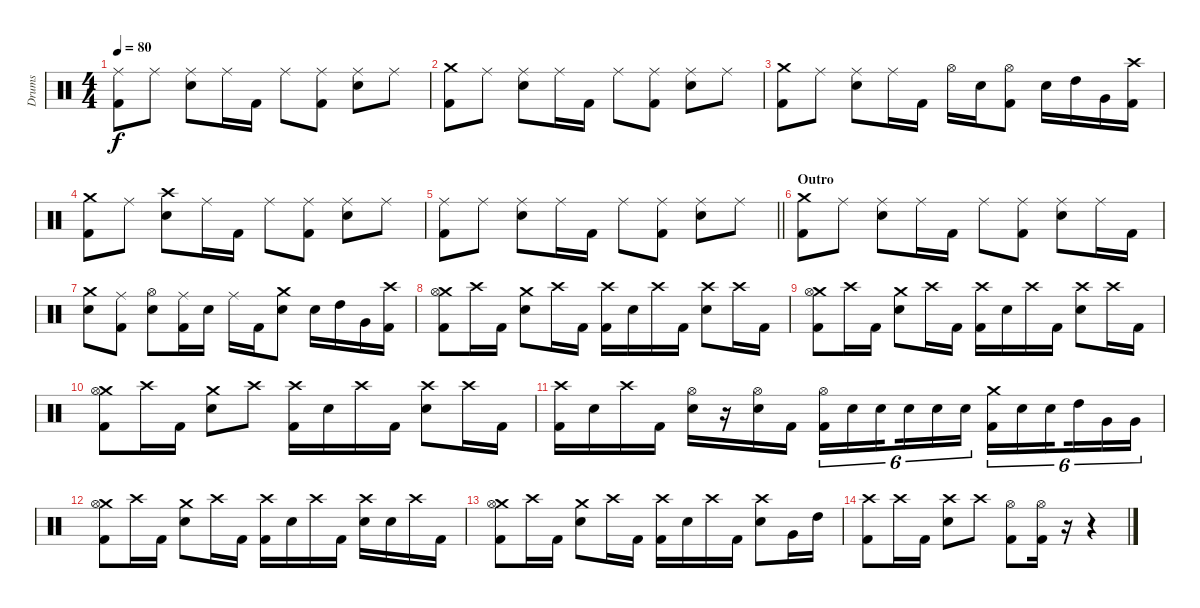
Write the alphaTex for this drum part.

\track ("Drums" "Drums") {instrument percussion}
\staff {score}
\articulation defaults
\ts (4 4)
\tempo 80
\clef neutral
\ks c
("Ride (middle)" "Kick (hit) 2").8{dy f} "Ride (middle)".8 ("Ride (middle)" "Snare (hit) 2").8 "Ride (middle)".16 "Kick (hit) 2".16 "Ride (middle)".8 ("Ride (middle)" "Kick (hit) 2").8 ("Ride (middle)" "Snare (hit) 2").8 "Ride (middle)".8 |
("Crash medium (hit)" "Kick (hit) 2").8 "Ride (middle)".8 ("Ride (middle)" "Snare (hit) 2").8 "Ride (middle)".16 "Kick (hit) 2".16 "Ride (middle)".8 ("Ride (middle)" "Kick (hit) 2").8 ("Ride (middle)" "Snare (hit) 2").8 "Ride (middle)".8 |
("Crash medium (hit)" "Kick (hit) 2").8 "Ride (middle)".8 ("Ride (middle)" "Snare (hit) 2").8 "Ride (middle)".16 "Kick (hit) 2".16 "Hi-Hat (open)".16 "Snare (hit) 2".16 ("Hi-Hat (open)" "Kick (hit) 2").8 "Snare (hit) 2".16 "High Tom (hit)".16 "Very Low Tom (hit)".16 ("Crash high (hit)" "Kick (hit) 2").16 |
("Crash medium (hit)" "Kick (hit) 2").8 "Ride (middle)".8 ("Crash high (hit)" "Snare (hit) 2").8 "Ride (middle)".16 "Kick (hit) 2".16 "Ride (middle)".8 ("Ride (middle)" "Kick (hit) 2").8 ("Ride (middle)" "Snare (hit) 2").8 "Ride (middle)".8 |
\barLineRight lightlight
("Ride (middle)" "Kick (hit) 2").8 "Ride (middle)".8 ("Ride (middle)" "Snare (hit) 2").8 "Ride (middle)".16 "Kick (hit) 2".16 "Ride (middle)".8 ("Ride (middle)" "Kick (hit) 2").8 ("Ride (middle)" "Snare (hit) 2").8 "Ride (middle)".8 |
\section ("" "Outro")
("Crash medium (hit)" "Kick (hit) 2").8 "Ride (middle)".8 ("Ride (middle)" "Snare (hit) 2").8 "Ride (middle)".16 "Kick (hit) 2".16 "Ride (middle)".8 ("Ride (middle)" "Kick (hit) 2").8 ("Ride (middle)" "Snare (hit) 2").8 "Ride (middle)".16 "Kick (hit) 2".16 |
("Crash medium (hit)" "Snare (hit) 2").8 ("Ride (middle)" "Kick (hit) 2").8 ("Hi-Hat (open)" "Snare (hit) 2").8 ("Ride (middle)" "Kick (hit) 2").16 "Snare (hit) 2".16 "Ride (middle)".16 "Kick (hit) 2".16 ("Crash medium (hit)" "Snare (hit) 2").8 "Snare (hit) 2".16 "High Tom (hit)".16 "Very Low Tom (hit)".16 ("Crash high (hit)" "Kick (hit) 2").16 |
("Crash medium (hit)" "Hi-Hat (open)" "Kick (hit) 2").8 "Crash high (hit)".16 "Kick (hit) 2".16 ("Crash medium (hit)" "Snare (hit) 2").8 "Crash high (hit)".16 "Kick (hit) 2".16 ("Crash high (hit)" "Kick (hit) 2").16 "Snare (hit) 2".16 "Crash high (hit)".16 "Kick (hit) 2".16 ("Crash high (hit)" "Snare (hit) 2").8 "Crash high (hit)".16 "Kick (hit) 2".16 |
("Crash medium (hit)" "Hi-Hat (open)" "Kick (hit) 2").8 "Crash high (hit)".16 "Kick (hit) 2".16 ("Crash medium (hit)" "Snare (hit) 2").8 "Crash high (hit)".16 "Kick (hit) 2".16 ("Crash high (hit)" "Kick (hit) 2").16 "Snare (hit) 2".16 "Crash high (hit)".16 "Kick (hit) 2".16 ("Crash high (hit)" "Snare (hit) 2").8 "Crash high (hit)".16 "Kick (hit) 2".16 |
("Crash medium (hit)" "Hi-Hat (open)" "Kick (hit) 2").8 "Crash high (hit)".16 "Kick (hit) 2".16 ("Crash medium (hit)" "Snare (hit) 2").8 "Crash high (hit)".8 ("Crash high (hit)" "Kick (hit) 2").16 "Snare (hit) 2".16 "Crash high (hit)".16 "Kick (hit) 2".16 ("Crash high (hit)" "Snare (hit) 2").8 "Crash high (hit)".16 "Kick (hit) 2".16 |
("Crash high (hit)" "Kick (hit) 2").16 "Snare (hit) 2".16 "Crash high (hit)".16 "Kick (hit) 2".16 ("Hi-Hat (open)" "Snare (hit) 2").16 r.16 ("Hi-Hat (open)" "Snare (hit) 2").16 "Kick (hit) 2".16 ("Hi-Hat (open)" "Kick (hit) 2").16{tu (6 4)} "Snare (hit) 2".16{tu (6 4)} "Snare (hit) 2".16{tu (6 4) beam splitsecondary} "Snare (hit) 2".16{tu (6 4)} "Snare (hit) 2".16{tu (6 4)} "Snare (hit) 2".16{tu (6 4)} ("Crash medium (hit)" "Kick (hit) 2").16{tu (6 4)} "Snare (hit) 2".16{tu (6 4)} "Snare (hit) 2".16{tu (6 4) beam splitsecondary} "High Tom (hit)".16{tu (6 4)} "Very Low Tom (hit)".16{tu (6 4)} "Very Low Tom (hit)".16{tu (6 4)} |
("Crash medium (hit)" "Hi-Hat (open)" "Kick (hit) 2").8 "Crash high (hit)".16 "Kick (hit) 2".16 ("Crash medium (hit)" "Snare (hit) 2").8 "Crash high (hit)".16 "Kick (hit) 2".16 ("Crash high (hit)" "Kick (hit) 2").16 "Snare (hit) 2".16 "Crash high (hit)".16 "Kick (hit) 2".16 ("Crash high (hit)" "Snare (hit) 2").16 "Snare (hit) 2".16 "Crash high (hit)".16 "Kick (hit) 2".16 |
("Crash medium (hit)" "Hi-Hat (open)" "Kick (hit) 2").8 "Crash high (hit)".16 "Kick (hit) 2".16 ("Crash medium (hit)" "Snare (hit) 2").8 "Crash high (hit)".16 "Kick (hit) 2".16 ("Crash high (hit)" "Kick (hit) 2").16 "Snare (hit) 2".16 "Crash high (hit)".16 "Kick (hit) 2".16 ("Crash high (hit)" "Snare (hit) 2").8 "Very Low Tom (hit)".16 "High Tom (hit)".16 |
("Crash high (hit)" "Kick (hit) 2").8 "Crash high (hit)".16 "Kick (hit) 2".16 ("Crash high (hit)" "Snare (hit) 2").8 "Crash high (hit)".8 ("Hi-Hat (open)" "Kick (hit) 2").8 ("Hi-Hat (open)" "Kick (hit) 2").16 r.16 r.4
